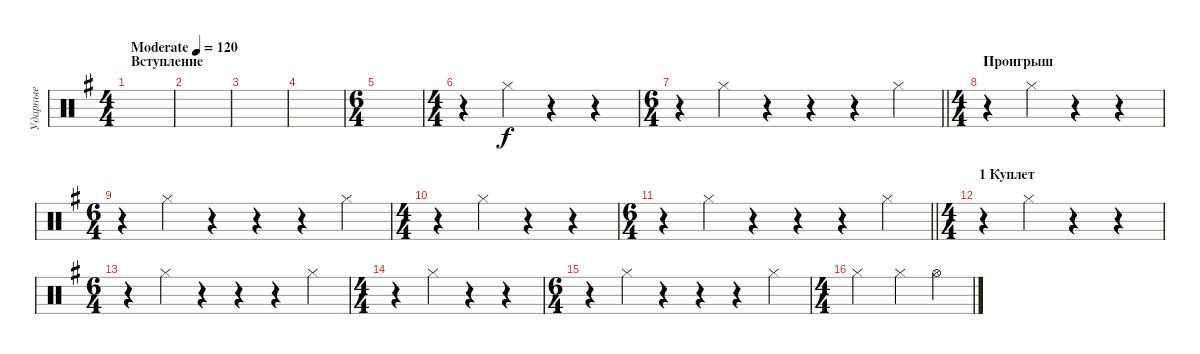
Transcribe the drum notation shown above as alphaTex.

\track ("Ударные" "Ударные") {instrument percussion}
\staff {score}
\articulation defaults
\ts (4 4)
\section ("" "Вступление")
\tempo (120 "Moderate")
\clef neutral
\ks eminor
|
|
|
|
\ts (6 4)
|
\ts (4 4)
r.4 "Hi-Hat (closed)".4 r.4 r.4 |
\ts (6 4)
\barLineRight lightlight
r.4 "Hi-Hat (closed)".4 r.4 r.4 r.4 "Hi-Hat (closed)".4 |
\ts (4 4)
\section ("" "Проигрыш")
r.4 "Hi-Hat (closed)".4 r.4 r.4 |
\ts (6 4)
r.4 "Hi-Hat (closed)".4 r.4 r.4 r.4 "Hi-Hat (closed)".4 |
\ts (4 4)
r.4 "Hi-Hat (closed)".4 r.4 r.4 |
\ts (6 4)
\barLineRight lightlight
r.4 "Hi-Hat (closed)".4 r.4 r.4 r.4 "Hi-Hat (closed)".4 |
\ts (4 4)
\section ("" "1 Куплет")
r.4 "Hi-Hat (closed)".4 r.4 r.4 |
\ts (6 4)
r.4 "Hi-Hat (closed)".4 r.4 r.4 r.4 "Hi-Hat (closed)".4 |
\ts (4 4)
r.4 "Hi-Hat (closed)".4 r.4 r.4 |
\ts (6 4)
r.4 "Hi-Hat (closed)".4 r.4 r.4 r.4 "Hi-Hat (closed)".4 |
\ts (4 4)
"Hi-Hat (closed)".2 "Hi-Hat (closed)".4 "Hi-Hat (open)".4
